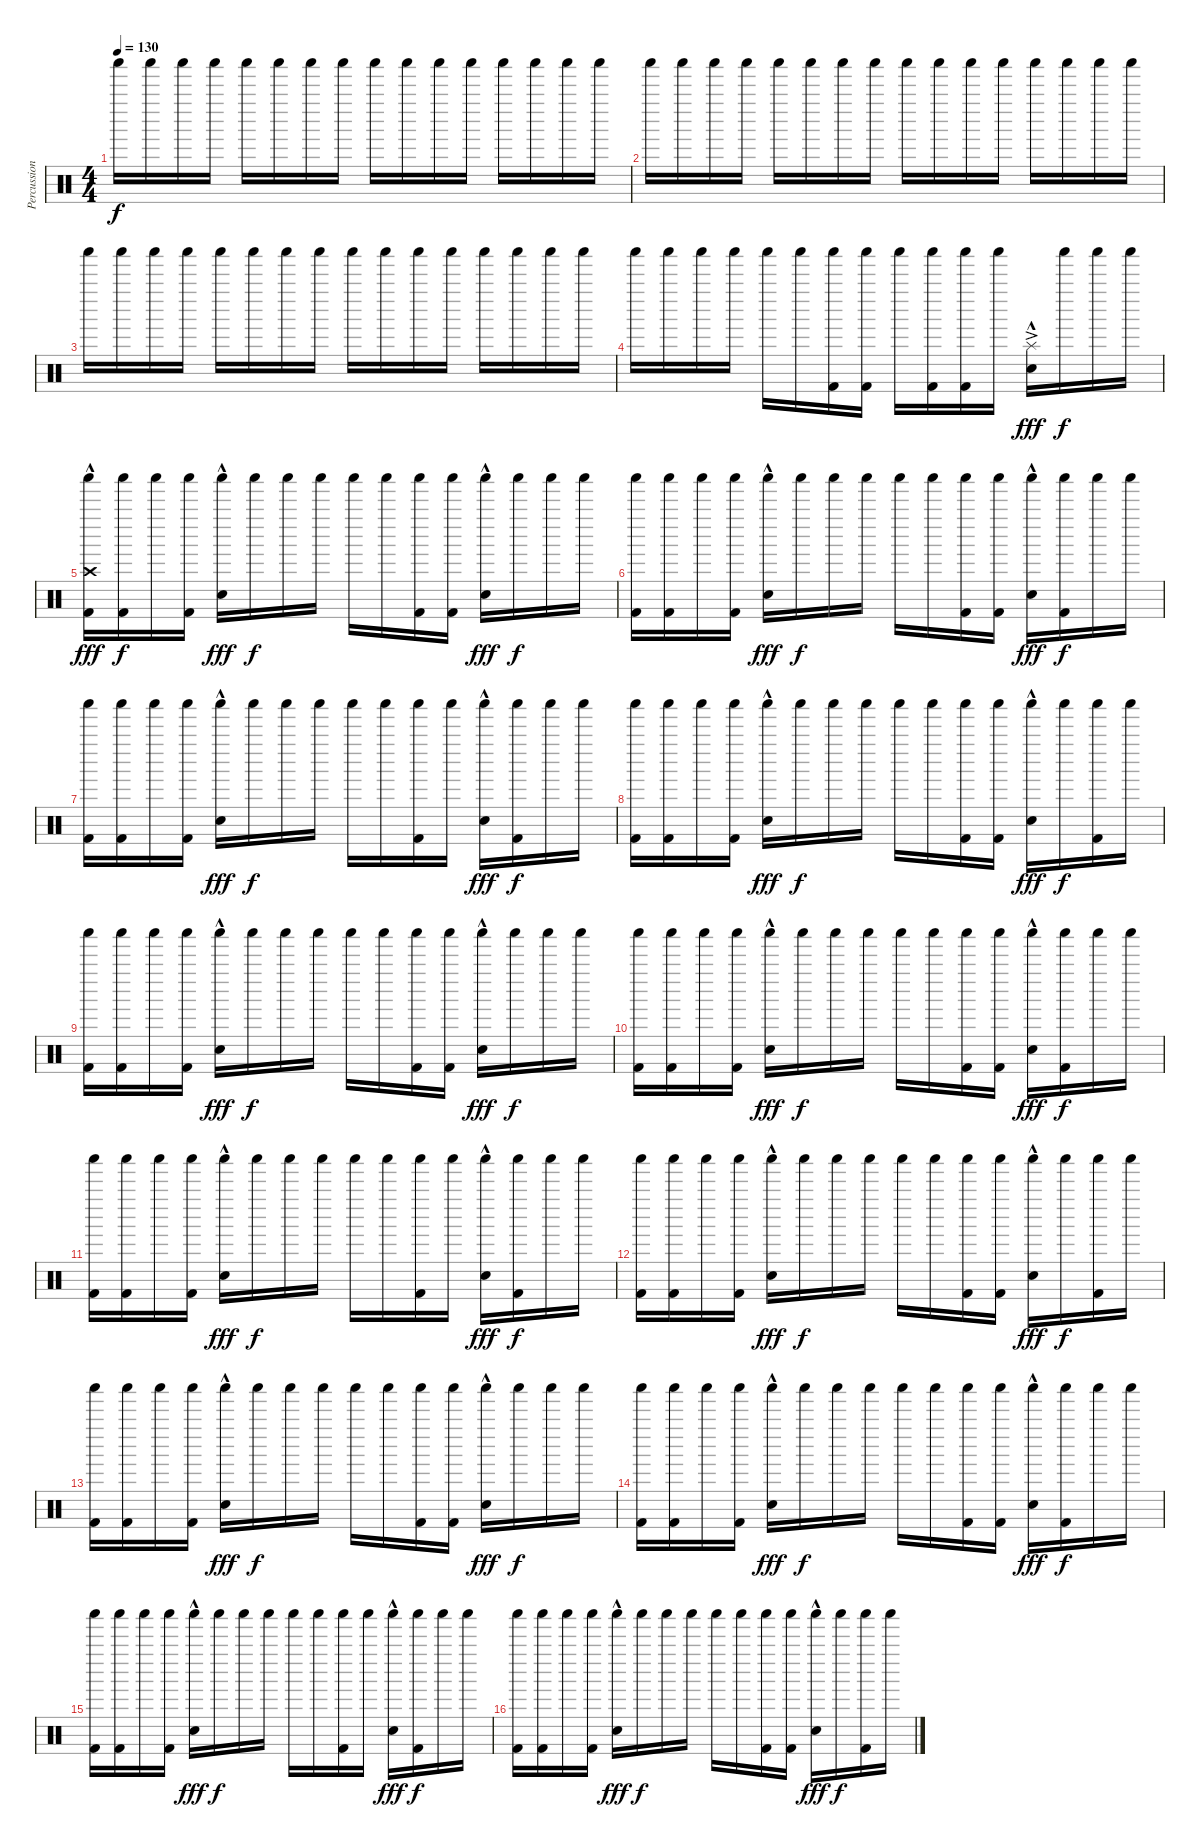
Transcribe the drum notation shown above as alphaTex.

\track ("Percussion" "Percussion") {instrument percussion}
\staff {score}
\articulation defaults
\ts (4 4)
\tempo 130
\clef neutral
\ks c "Shaker (hit)".16{dy f} "Shaker (hit)".16 "Shaker (hit)".16 "Shaker (hit)".16 "Shaker (hit)".16 "Shaker (hit)".16 "Shaker (hit)".16 "Shaker (hit)".16 "Shaker (hit)".16 "Shaker (hit)".16 "Shaker (hit)".16 "Shaker (hit)".16 "Shaker (hit)".16 "Shaker (hit)".16 "Shaker (hit)".16 "Shaker (hit)".16
|
"Shaker (hit)".16 "Shaker (hit)".16 "Shaker (hit)".16 "Shaker (hit)".16 "Shaker (hit)".16 "Shaker (hit)".16 "Shaker (hit)".16 "Shaker (hit)".16 "Shaker (hit)".16 "Shaker (hit)".16 "Shaker (hit)".16 "Shaker (hit)".16 "Shaker (hit)".16 "Shaker (hit)".16 "Shaker (hit)".16 "Shaker (hit)".16 |
"Shaker (hit)".16 "Shaker (hit)".16 "Shaker (hit)".16 "Shaker (hit)".16 "Shaker (hit)".16 "Shaker (hit)".16 "Shaker (hit)".16 "Shaker (hit)".16 "Shaker (hit)".16 "Shaker (hit)".16 "Shaker (hit)".16 "Shaker (hit)".16 "Shaker (hit)".16 "Shaker (hit)".16 "Shaker (hit)".16 "Shaker (hit)".16 |
"Shaker (hit)".16 "Shaker (hit)".16 "Shaker (hit)".16 "Shaker (hit)".16 "Shaker (hit)".16 "Shaker (hit)".16 ("Shaker (hit)" "Kick (hit) 2").16 ("Shaker (hit)" "Kick (hit) 2").16 "Shaker (hit)".16 ("Shaker (hit)" "Kick (hit) 2").16 ("Shaker (hit)" "Kick (hit) 2").16 "Shaker (hit)".16 ("Splash (hit)"{ac} "Snare (hit) 2"{hac}).16{dy fff} "Shaker (hit)".16{dy f} "Shaker (hit)".16 "Shaker (hit)".16 |
("Shaker (hit)" "Crash high (hit)"{hac} "Kick (hit) 2").16{dy fff} ("Shaker (hit)" "Kick (hit) 2").16{dy f} "Shaker (hit)".16 ("Shaker (hit)" "Kick (hit) 2").16 ("Shaker (hit)" "Snare (hit) 2"{hac}).16{dy fff} "Shaker (hit)".16{dy f} "Shaker (hit)".16 "Shaker (hit)".16 "Shaker (hit)".16 "Shaker (hit)".16 ("Shaker (hit)" "Kick (hit) 2").16 ("Shaker (hit)" "Kick (hit) 2").16 ("Shaker (hit)" "Snare (hit) 2"{hac}).16{dy fff} "Shaker (hit)".16{dy f} "Shaker (hit)".16 "Shaker (hit)".16 |
("Shaker (hit)" "Kick (hit) 2").16 ("Shaker (hit)" "Kick (hit) 2").16 "Shaker (hit)".16 ("Shaker (hit)" "Kick (hit) 2").16 ("Shaker (hit)" "Snare (hit) 2"{hac}).16{dy fff} "Shaker (hit)".16{dy f} "Shaker (hit)".16 "Shaker (hit)".16 "Shaker (hit)".16 "Shaker (hit)".16 ("Shaker (hit)" "Kick (hit) 2").16 ("Shaker (hit)" "Kick (hit) 2").16 ("Shaker (hit)" "Snare (hit) 2"{hac}).16{dy fff} ("Shaker (hit)" "Kick (hit) 2").16{dy f} "Shaker (hit)".16 "Shaker (hit)".16 |
("Shaker (hit)" "Kick (hit) 2").16 ("Shaker (hit)" "Kick (hit) 2").16 "Shaker (hit)".16 ("Shaker (hit)" "Kick (hit) 2").16 ("Shaker (hit)" "Snare (hit) 2"{hac}).16{dy fff} "Shaker (hit)".16{dy f} "Shaker (hit)".16 "Shaker (hit)".16 "Shaker (hit)".16 "Shaker (hit)".16 ("Shaker (hit)" "Kick (hit) 2").16 "Shaker (hit)".16 ("Shaker (hit)" "Snare (hit) 2"{hac}).16{dy fff} ("Shaker (hit)" "Kick (hit) 2").16{dy f} "Shaker (hit)".16 "Shaker (hit)".16 |
("Shaker (hit)" "Kick (hit) 2").16 ("Shaker (hit)" "Kick (hit) 2").16 "Shaker (hit)".16 ("Shaker (hit)" "Kick (hit) 2").16 ("Shaker (hit)" "Snare (hit) 2"{hac}).16{dy fff} "Shaker (hit)".16{dy f} "Shaker (hit)".16 "Shaker (hit)".16 "Shaker (hit)".16 "Shaker (hit)".16 ("Shaker (hit)" "Kick (hit) 2").16 ("Shaker (hit)" "Kick (hit) 2").16 ("Shaker (hit)" "Snare (hit) 2"{hac}).16{dy fff} "Shaker (hit)".16{dy f} ("Shaker (hit)" "Kick (hit) 2").16 "Shaker (hit)".16 |
("Shaker (hit)" "Kick (hit) 2").16 ("Shaker (hit)" "Kick (hit) 2").16 "Shaker (hit)".16 ("Shaker (hit)" "Kick (hit) 2").16 ("Shaker (hit)" "Snare (hit) 2"{hac}).16{dy fff} "Shaker (hit)".16{dy f} "Shaker (hit)".16 "Shaker (hit)".16 "Shaker (hit)".16 "Shaker (hit)".16 ("Shaker (hit)" "Kick (hit) 2").16 ("Shaker (hit)" "Kick (hit) 2").16 ("Shaker (hit)" "Snare (hit) 2"{hac}).16{dy fff} "Shaker (hit)".16{dy f} "Shaker (hit)".16 "Shaker (hit)".16 |
("Shaker (hit)" "Kick (hit) 2").16 ("Shaker (hit)" "Kick (hit) 2").16 "Shaker (hit)".16 ("Shaker (hit)" "Kick (hit) 2").16 ("Shaker (hit)" "Snare (hit) 2"{hac}).16{dy fff} "Shaker (hit)".16{dy f} "Shaker (hit)".16 "Shaker (hit)".16 "Shaker (hit)".16 "Shaker (hit)".16 ("Shaker (hit)" "Kick (hit) 2").16 ("Shaker (hit)" "Kick (hit) 2").16 ("Shaker (hit)" "Snare (hit) 2"{hac}).16{dy fff} ("Shaker (hit)" "Kick (hit) 2").16{dy f} "Shaker (hit)".16 "Shaker (hit)".16 |
("Shaker (hit)" "Kick (hit) 2").16 ("Shaker (hit)" "Kick (hit) 2").16 "Shaker (hit)".16 ("Shaker (hit)" "Kick (hit) 2").16 ("Shaker (hit)" "Snare (hit) 2"{hac}).16{dy fff} "Shaker (hit)".16{dy f} "Shaker (hit)".16 "Shaker (hit)".16 "Shaker (hit)".16 "Shaker (hit)".16 ("Shaker (hit)" "Kick (hit) 2").16 "Shaker (hit)".16 ("Shaker (hit)" "Snare (hit) 2"{hac}).16{dy fff} ("Shaker (hit)" "Kick (hit) 2").16{dy f} "Shaker (hit)".16 "Shaker (hit)".16 |
("Shaker (hit)" "Kick (hit) 2").16 ("Shaker (hit)" "Kick (hit) 2").16 "Shaker (hit)".16 ("Shaker (hit)" "Kick (hit) 2").16 ("Shaker (hit)" "Snare (hit) 2"{hac}).16{dy fff} "Shaker (hit)".16{dy f} "Shaker (hit)".16 "Shaker (hit)".16 "Shaker (hit)".16 "Shaker (hit)".16 ("Shaker (hit)" "Kick (hit) 2").16 ("Shaker (hit)" "Kick (hit) 2").16 ("Shaker (hit)" "Snare (hit) 2"{hac}).16{dy fff} "Shaker (hit)".16{dy f} ("Shaker (hit)" "Kick (hit) 2").16 "Shaker (hit)".16 |
("Shaker (hit)" "Kick (hit) 2").16 ("Shaker (hit)" "Kick (hit) 2").16 "Shaker (hit)".16 ("Shaker (hit)" "Kick (hit) 2").16 ("Shaker (hit)" "Snare (hit) 2"{hac}).16{dy fff} "Shaker (hit)".16{dy f} "Shaker (hit)".16 "Shaker (hit)".16 "Shaker (hit)".16 "Shaker (hit)".16 ("Shaker (hit)" "Kick (hit) 2").16 ("Shaker (hit)" "Kick (hit) 2").16 ("Shaker (hit)" "Snare (hit) 2"{hac}).16{dy fff} "Shaker (hit)".16{dy f} "Shaker (hit)".16 "Shaker (hit)".16 |
("Shaker (hit)" "Kick (hit) 2").16 ("Shaker (hit)" "Kick (hit) 2").16 "Shaker (hit)".16 ("Shaker (hit)" "Kick (hit) 2").16 ("Shaker (hit)" "Snare (hit) 2"{hac}).16{dy fff} "Shaker (hit)".16{dy f} "Shaker (hit)".16 "Shaker (hit)".16 "Shaker (hit)".16 "Shaker (hit)".16 ("Shaker (hit)" "Kick (hit) 2").16 ("Shaker (hit)" "Kick (hit) 2").16 ("Shaker (hit)" "Snare (hit) 2"{hac}).16{dy fff} ("Shaker (hit)" "Kick (hit) 2").16{dy f} "Shaker (hit)".16 "Shaker (hit)".16 |
("Shaker (hit)" "Kick (hit) 2").16 ("Shaker (hit)" "Kick (hit) 2").16 "Shaker (hit)".16 ("Shaker (hit)" "Kick (hit) 2").16 ("Shaker (hit)" "Snare (hit) 2"{hac}).16{dy fff} "Shaker (hit)".16{dy f} "Shaker (hit)".16 "Shaker (hit)".16 "Shaker (hit)".16 "Shaker (hit)".16 ("Shaker (hit)" "Kick (hit) 2").16 "Shaker (hit)".16 ("Shaker (hit)" "Snare (hit) 2"{hac}).16{dy fff} ("Shaker (hit)" "Kick (hit) 2").16{dy f} "Shaker (hit)".16 "Shaker (hit)".16 |
("Shaker (hit)" "Kick (hit) 2").16 ("Shaker (hit)" "Kick (hit) 2").16 "Shaker (hit)".16 ("Shaker (hit)" "Kick (hit) 2").16 ("Shaker (hit)" "Snare (hit) 2"{hac}).16{dy fff} "Shaker (hit)".16{dy f} "Shaker (hit)".16 "Shaker (hit)".16 "Shaker (hit)".16 "Shaker (hit)".16 ("Shaker (hit)" "Kick (hit) 2").16 ("Shaker (hit)" "Kick (hit) 2").16 ("Shaker (hit)" "Snare (hit) 2"{hac}).16{dy fff} "Shaker (hit)".16{dy f} ("Shaker (hit)" "Kick (hit) 2").16 "Shaker (hit)".16
